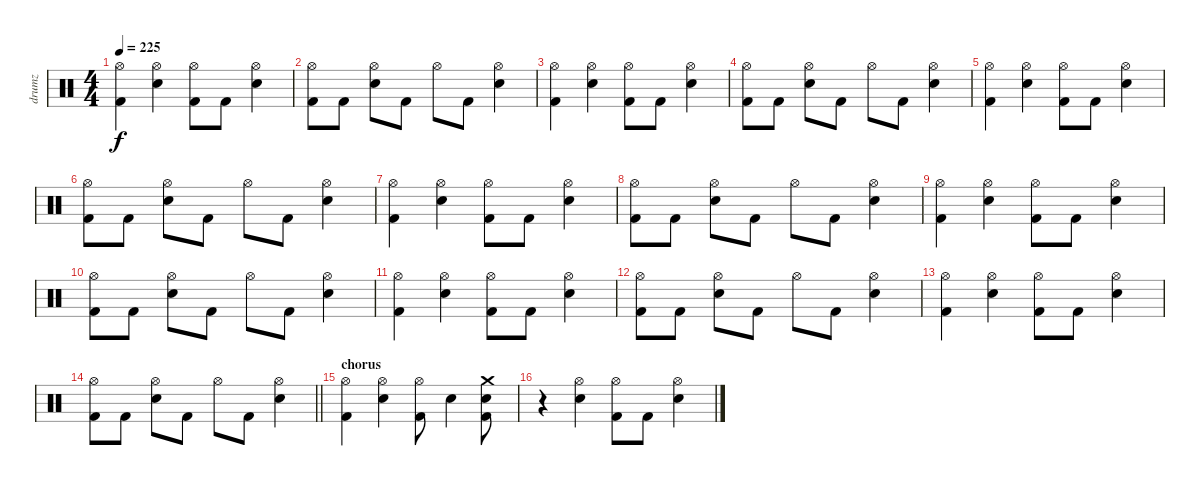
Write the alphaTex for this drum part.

\track ("drumz" "drumz") {instrument percussion}
\staff {score}
\articulation defaults
\ts (4 4)
\tempo 225
\clef neutral
\ks c
("Hi-Hat (open)" "Kick (hit) 2").4{dy f} ("Hi-Hat (open)" "Electric Snare (hit)").4 ("Hi-Hat (open)" "Kick (hit) 2").8 "Kick (hit) 2".8 ("Hi-Hat (open)" "Electric Snare (hit)").4 |
("Hi-Hat (open)" "Kick (hit) 2").8 "Kick (hit) 2".8 ("Hi-Hat (open)" "Electric Snare (hit)").8 "Kick (hit) 2".8 "Hi-Hat (open)".8 "Kick (hit) 2".8 ("Hi-Hat (open)" "Electric Snare (hit)").4 |
("Hi-Hat (open)" "Kick (hit) 2").4 ("Hi-Hat (open)" "Electric Snare (hit)").4 ("Hi-Hat (open)" "Kick (hit) 2").8 "Kick (hit) 2".8 ("Hi-Hat (open)" "Electric Snare (hit)").4 |
("Hi-Hat (open)" "Kick (hit) 2").8 "Kick (hit) 2".8 ("Hi-Hat (open)" "Electric Snare (hit)").8 "Kick (hit) 2".8 "Hi-Hat (open)".8 "Kick (hit) 2".8 ("Hi-Hat (open)" "Electric Snare (hit)").4 |
("Hi-Hat (open)" "Kick (hit) 2").4 ("Hi-Hat (open)" "Electric Snare (hit)").4 ("Hi-Hat (open)" "Kick (hit) 2").8 "Kick (hit) 2".8 ("Hi-Hat (open)" "Electric Snare (hit)").4 |
("Hi-Hat (open)" "Kick (hit) 2").8 "Kick (hit) 2".8 ("Hi-Hat (open)" "Electric Snare (hit)").8 "Kick (hit) 2".8 "Hi-Hat (open)".8 "Kick (hit) 2".8 ("Hi-Hat (open)" "Electric Snare (hit)").4 |
("Hi-Hat (open)" "Kick (hit) 2").4 ("Hi-Hat (open)" "Electric Snare (hit)").4 ("Hi-Hat (open)" "Kick (hit) 2").8 "Kick (hit) 2".8 ("Hi-Hat (open)" "Electric Snare (hit)").4 |
("Hi-Hat (open)" "Kick (hit) 2").8 "Kick (hit) 2".8 ("Hi-Hat (open)" "Electric Snare (hit)").8 "Kick (hit) 2".8 "Hi-Hat (open)".8 "Kick (hit) 2".8 ("Hi-Hat (open)" "Electric Snare (hit)").4 |
("Hi-Hat (open)" "Kick (hit) 2").4 ("Hi-Hat (open)" "Electric Snare (hit)").4 ("Hi-Hat (open)" "Kick (hit) 2").8 "Kick (hit) 2".8 ("Hi-Hat (open)" "Electric Snare (hit)").4 |
("Hi-Hat (open)" "Kick (hit) 2").8 "Kick (hit) 2".8 ("Hi-Hat (open)" "Electric Snare (hit)").8 "Kick (hit) 2".8 "Hi-Hat (open)".8 "Kick (hit) 2".8 ("Hi-Hat (open)" "Electric Snare (hit)").4 |
("Hi-Hat (open)" "Kick (hit) 2").4 ("Hi-Hat (open)" "Electric Snare (hit)").4 ("Hi-Hat (open)" "Kick (hit) 2").8 "Kick (hit) 2".8 ("Hi-Hat (open)" "Electric Snare (hit)").4 |
("Hi-Hat (open)" "Kick (hit) 2").8 "Kick (hit) 2".8 ("Hi-Hat (open)" "Electric Snare (hit)").8 "Kick (hit) 2".8 "Hi-Hat (open)".8 "Kick (hit) 2".8 ("Hi-Hat (open)" "Electric Snare (hit)").4 |
("Hi-Hat (open)" "Kick (hit) 2").4 ("Hi-Hat (open)" "Electric Snare (hit)").4 ("Hi-Hat (open)" "Kick (hit) 2").8 "Kick (hit) 2".8 ("Hi-Hat (open)" "Electric Snare (hit)").4 |
\barLineRight lightlight
("Hi-Hat (open)" "Kick (hit) 2").8 "Kick (hit) 2".8 ("Hi-Hat (open)" "Electric Snare (hit)").8 "Kick (hit) 2".8 "Hi-Hat (open)".8 "Kick (hit) 2".8 ("Hi-Hat (open)" "Electric Snare (hit)").4 |
\section ("" "chorus")
("Hi-Hat (open)" "Kick (hit) 2").4 ("Hi-Hat (open)" "Electric Snare (hit)").4 ("Hi-Hat (open)" "Kick (hit) 2").8 "Electric Snare (hit)".4 ("Crash medium (hit)" "Electric Snare (hit)" "Kick (hit) 2").8 |
r.4 ("Hi-Hat (open)" "Electric Snare (hit)").4 ("Hi-Hat (open)" "Kick (hit) 2").8 "Kick (hit) 2".8 ("Hi-Hat (open)" "Electric Snare (hit)").4
